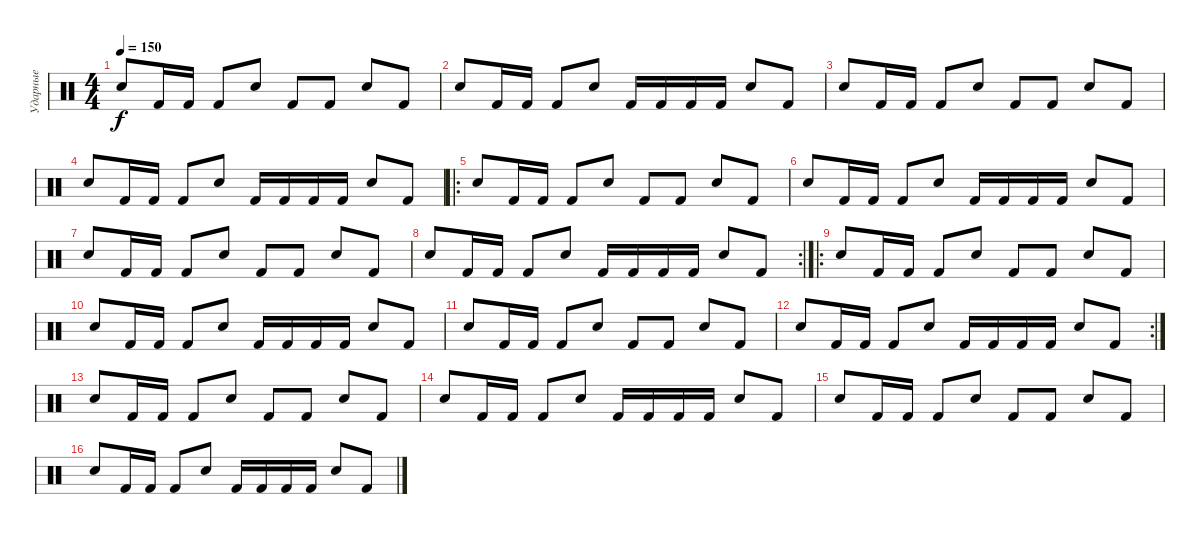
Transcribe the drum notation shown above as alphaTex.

\track ("Ударные" "Ударные") {instrument percussion}
\staff {score}
\articulation defaults
\ts (4 4)
\tempo 150
\clef neutral
\ks c "Snare (hit) 2".8{dy f} "Kick (hit) 2".16 "Kick (hit) 2".16 "Kick (hit) 2".8 "Hand Clap (hit)".8 "Kick (hit) 2".8 "Kick (hit) 2".8 "Hand Clap (hit)".8 "Kick (hit) 2".8
|
"Snare (hit) 2".8 "Kick (hit) 2".16 "Kick (hit) 2".16 "Kick (hit) 2".8 "Hand Clap (hit)".8 "Kick (hit) 2".16 "Kick (hit) 2".16 "Kick (hit) 2".16 "Kick (hit) 2".16 "Hand Clap (hit)".8 "Kick (hit) 2".8 |
"Snare (hit) 2".8 "Kick (hit) 2".16 "Kick (hit) 2".16 "Kick (hit) 2".8 "Hand Clap (hit)".8 "Kick (hit) 2".8 "Kick (hit) 2".8 "Hand Clap (hit)".8 "Kick (hit) 2".8 |
"Snare (hit) 2".8 "Kick (hit) 2".16 "Kick (hit) 2".16 "Kick (hit) 2".8 "Hand Clap (hit)".8 "Kick (hit) 2".16 "Kick (hit) 2".16 "Kick (hit) 2".16 "Kick (hit) 2".16 "Hand Clap (hit)".8 "Kick (hit) 2".8 |
\ro "Snare (hit) 2".8 "Kick (hit) 2".16 "Kick (hit) 2".16 "Kick (hit) 2".8 "Hand Clap (hit)".8 "Kick (hit) 2".8 "Kick (hit) 2".8 "Hand Clap (hit)".8 "Kick (hit) 2".8
|
"Snare (hit) 2".8 "Kick (hit) 2".16 "Kick (hit) 2".16 "Kick (hit) 2".8 "Hand Clap (hit)".8 "Kick (hit) 2".16 "Kick (hit) 2".16 "Kick (hit) 2".16 "Kick (hit) 2".16 "Hand Clap (hit)".8 "Kick (hit) 2".8 |
"Snare (hit) 2".8 "Kick (hit) 2".16 "Kick (hit) 2".16 "Kick (hit) 2".8 "Hand Clap (hit)".8 "Kick (hit) 2".8 "Kick (hit) 2".8 "Hand Clap (hit)".8 "Kick (hit) 2".8 |
\rc 2 "Snare (hit) 2".8 "Kick (hit) 2".16 "Kick (hit) 2".16 "Kick (hit) 2".8 "Hand Clap (hit)".8 "Kick (hit) 2".16 "Kick (hit) 2".16 "Kick (hit) 2".16 "Kick (hit) 2".16 "Hand Clap (hit)".8 "Kick (hit) 2".8
|
\ro "Snare (hit) 2".8 "Kick (hit) 2".16 "Kick (hit) 2".16 "Kick (hit) 2".8 "Hand Clap (hit)".8 "Kick (hit) 2".8 "Kick (hit) 2".8 "Hand Clap (hit)".8 "Kick (hit) 2".8
|
"Snare (hit) 2".8 "Kick (hit) 2".16 "Kick (hit) 2".16 "Kick (hit) 2".8 "Hand Clap (hit)".8 "Kick (hit) 2".16 "Kick (hit) 2".16 "Kick (hit) 2".16 "Kick (hit) 2".16 "Hand Clap (hit)".8 "Kick (hit) 2".8 |
"Snare (hit) 2".8 "Kick (hit) 2".16 "Kick (hit) 2".16 "Kick (hit) 2".8 "Hand Clap (hit)".8 "Kick (hit) 2".8 "Kick (hit) 2".8 "Hand Clap (hit)".8 "Kick (hit) 2".8 |
\rc 2 "Snare (hit) 2".8 "Kick (hit) 2".16 "Kick (hit) 2".16 "Kick (hit) 2".8 "Hand Clap (hit)".8 "Kick (hit) 2".16 "Kick (hit) 2".16 "Kick (hit) 2".16 "Kick (hit) 2".16 "Hand Clap (hit)".8 "Kick (hit) 2".8
|
"Snare (hit) 2".8 "Kick (hit) 2".16 "Kick (hit) 2".16 "Kick (hit) 2".8 "Hand Clap (hit)".8 "Kick (hit) 2".8 "Kick (hit) 2".8 "Hand Clap (hit)".8 "Kick (hit) 2".8 |
"Snare (hit) 2".8 "Kick (hit) 2".16 "Kick (hit) 2".16 "Kick (hit) 2".8 "Hand Clap (hit)".8 "Kick (hit) 2".16 "Kick (hit) 2".16 "Kick (hit) 2".16 "Kick (hit) 2".16 "Hand Clap (hit)".8 "Kick (hit) 2".8 |
"Snare (hit) 2".8 "Kick (hit) 2".16 "Kick (hit) 2".16 "Kick (hit) 2".8 "Hand Clap (hit)".8 "Kick (hit) 2".8 "Kick (hit) 2".8 "Hand Clap (hit)".8 "Kick (hit) 2".8 |
"Snare (hit) 2".8 "Kick (hit) 2".16 "Kick (hit) 2".16 "Kick (hit) 2".8 "Hand Clap (hit)".8 "Kick (hit) 2".16 "Kick (hit) 2".16 "Kick (hit) 2".16 "Kick (hit) 2".16 "Hand Clap (hit)".8 "Kick (hit) 2".8
